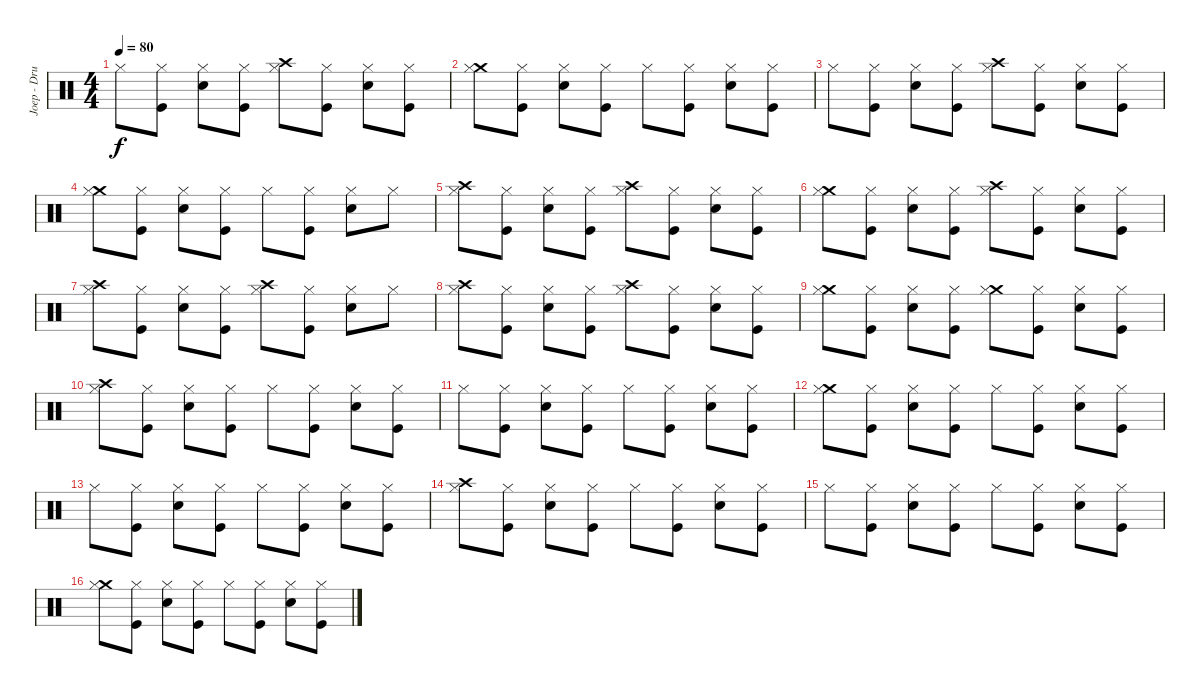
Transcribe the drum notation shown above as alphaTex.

\track ("Joep - Drums" "Joep - Dru") {instrument percussion}
\staff {score}
\articulation defaults
\ts (4 4)
\tempo 80
\clef neutral
\ks c "Hi-Hat (closed)".8{dy f}
("Hi-Hat (closed)" "Kick (hit)").8 ("Hi-Hat (closed)" "Electric Snare (hit)").8 ("Hi-Hat (closed)" "Kick (hit)").8 ("Crash high (hit)" "Hi-Hat (closed)").8 ("Hi-Hat (closed)" "Kick (hit)").8 ("Hi-Hat (closed)" "Electric Snare (hit)").8 ("Hi-Hat (closed)" "Kick (hit)").8 |
("Crash medium (hit)" "Hi-Hat (closed)").8 ("Hi-Hat (closed)" "Kick (hit)").8 ("Hi-Hat (closed)" "Electric Snare (hit)").8 ("Hi-Hat (closed)" "Kick (hit)").8 "Hi-Hat (closed)".8 ("Hi-Hat (closed)" "Kick (hit)").8 ("Hi-Hat (closed)" "Electric Snare (hit)").8 ("Hi-Hat (closed)" "Kick (hit)").8 |
"Hi-Hat (closed)".8 ("Hi-Hat (closed)" "Kick (hit)").8 ("Hi-Hat (closed)" "Electric Snare (hit)").8 ("Hi-Hat (closed)" "Kick (hit)").8 ("Crash high (hit)" "Hi-Hat (closed)").8 ("Hi-Hat (closed)" "Kick (hit)").8 ("Hi-Hat (closed)" "Electric Snare (hit)").8 ("Hi-Hat (closed)" "Kick (hit)").8 |
("Crash medium (hit)" "Hi-Hat (closed)").8 ("Hi-Hat (closed)" "Kick (hit)").8 ("Hi-Hat (closed)" "Electric Snare (hit)").8 ("Hi-Hat (closed)" "Kick (hit)").8 "Hi-Hat (closed)".8 ("Hi-Hat (closed)" "Kick (hit)").8 ("Hi-Hat (closed)" "Electric Snare (hit)").8 "Hi-Hat (closed)".8 |
("Crash high (hit)" "Hi-Hat (closed)").8 ("Hi-Hat (closed)" "Kick (hit)").8 ("Hi-Hat (closed)" "Electric Snare (hit)").8 ("Hi-Hat (closed)" "Kick (hit)").8 ("Crash high (hit)" "Hi-Hat (closed)").8 ("Hi-Hat (closed)" "Kick (hit)").8 ("Hi-Hat (closed)" "Electric Snare (hit)").8 ("Hi-Hat (closed)" "Kick (hit)").8 |
("Crash medium (hit)" "Hi-Hat (closed)").8 ("Hi-Hat (closed)" "Kick (hit)").8 ("Hi-Hat (closed)" "Electric Snare (hit)").8 ("Hi-Hat (closed)" "Kick (hit)").8 ("Crash high (hit)" "Hi-Hat (closed)").8 ("Hi-Hat (closed)" "Kick (hit)").8 ("Hi-Hat (closed)" "Electric Snare (hit)").8 ("Hi-Hat (closed)" "Kick (hit)").8 |
("Crash high (hit)" "Hi-Hat (closed)").8 ("Hi-Hat (closed)" "Kick (hit)").8 ("Hi-Hat (closed)" "Electric Snare (hit)").8 ("Hi-Hat (closed)" "Kick (hit)").8 ("Crash high (hit)" "Hi-Hat (closed)").8 ("Hi-Hat (closed)" "Kick (hit)").8 ("Hi-Hat (closed)" "Electric Snare (hit)").8 "Hi-Hat (closed)".8 |
("Crash high (hit)" "Hi-Hat (closed)").8 ("Hi-Hat (closed)" "Kick (hit)").8 ("Hi-Hat (closed)" "Electric Snare (hit)").8 ("Hi-Hat (closed)" "Kick (hit)").8 ("Crash high (hit)" "Hi-Hat (closed)").8 ("Hi-Hat (closed)" "Kick (hit)").8 ("Hi-Hat (closed)" "Electric Snare (hit)").8 ("Hi-Hat (closed)" "Kick (hit)").8 |
("Crash medium (hit)" "Hi-Hat (closed)").8 ("Hi-Hat (closed)" "Kick (hit)").8 ("Hi-Hat (closed)" "Electric Snare (hit)").8 ("Hi-Hat (closed)" "Kick (hit)").8 ("Crash medium (hit)" "Hi-Hat (closed)").8 ("Hi-Hat (closed)" "Kick (hit)").8 ("Hi-Hat (closed)" "Electric Snare (hit)").8 ("Hi-Hat (closed)" "Kick (hit)").8 |
("Crash high (hit)" "Hi-Hat (closed)").8 ("Hi-Hat (closed)" "Kick (hit)").8 ("Hi-Hat (closed)" "Electric Snare (hit)").8 ("Hi-Hat (closed)" "Kick (hit)").8 "Hi-Hat (closed)".8 ("Hi-Hat (closed)" "Kick (hit)").8 ("Hi-Hat (closed)" "Electric Snare (hit)").8 ("Hi-Hat (closed)" "Kick (hit)").8 |
"Hi-Hat (closed)".8 ("Hi-Hat (closed)" "Kick (hit)").8 ("Hi-Hat (closed)" "Electric Snare (hit)").8 ("Hi-Hat (closed)" "Kick (hit)").8 "Hi-Hat (closed)".8 ("Hi-Hat (closed)" "Kick (hit)").8 ("Hi-Hat (closed)" "Electric Snare (hit)").8 ("Hi-Hat (closed)" "Kick (hit)").8 |
("Crash medium (hit)" "Hi-Hat (closed)").8 ("Hi-Hat (closed)" "Kick (hit)").8 ("Hi-Hat (closed)" "Electric Snare (hit)").8 ("Hi-Hat (closed)" "Kick (hit)").8 "Hi-Hat (closed)".8 ("Hi-Hat (closed)" "Kick (hit)").8 ("Hi-Hat (closed)" "Electric Snare (hit)").8 ("Hi-Hat (closed)" "Kick (hit)").8 |
"Hi-Hat (closed)".8 ("Hi-Hat (closed)" "Kick (hit)").8 ("Hi-Hat (closed)" "Electric Snare (hit)").8 ("Hi-Hat (closed)" "Kick (hit)").8 "Hi-Hat (closed)".8 ("Hi-Hat (closed)" "Kick (hit)").8 ("Hi-Hat (closed)" "Electric Snare (hit)").8 ("Hi-Hat (closed)" "Kick (hit)").8 |
("Crash high (hit)" "Hi-Hat (closed)").8 ("Hi-Hat (closed)" "Kick (hit)").8 ("Hi-Hat (closed)" "Electric Snare (hit)").8 ("Hi-Hat (closed)" "Kick (hit)").8 "Hi-Hat (closed)".8 ("Hi-Hat (closed)" "Kick (hit)").8 ("Hi-Hat (closed)" "Electric Snare (hit)").8 ("Hi-Hat (closed)" "Kick (hit)").8 |
"Hi-Hat (closed)".8 ("Hi-Hat (closed)" "Kick (hit)").8 ("Hi-Hat (closed)" "Electric Snare (hit)").8 ("Hi-Hat (closed)" "Kick (hit)").8 "Hi-Hat (closed)".8 ("Hi-Hat (closed)" "Kick (hit)").8 ("Hi-Hat (closed)" "Electric Snare (hit)").8 ("Hi-Hat (closed)" "Kick (hit)").8 |
("Crash medium (hit)" "Hi-Hat (closed)").8 ("Hi-Hat (closed)" "Kick (hit)").8 ("Hi-Hat (closed)" "Electric Snare (hit)").8 ("Hi-Hat (closed)" "Kick (hit)").8 "Hi-Hat (closed)".8 ("Hi-Hat (closed)" "Kick (hit)").8 ("Hi-Hat (closed)" "Electric Snare (hit)").8 ("Hi-Hat (closed)" "Kick (hit)").8
